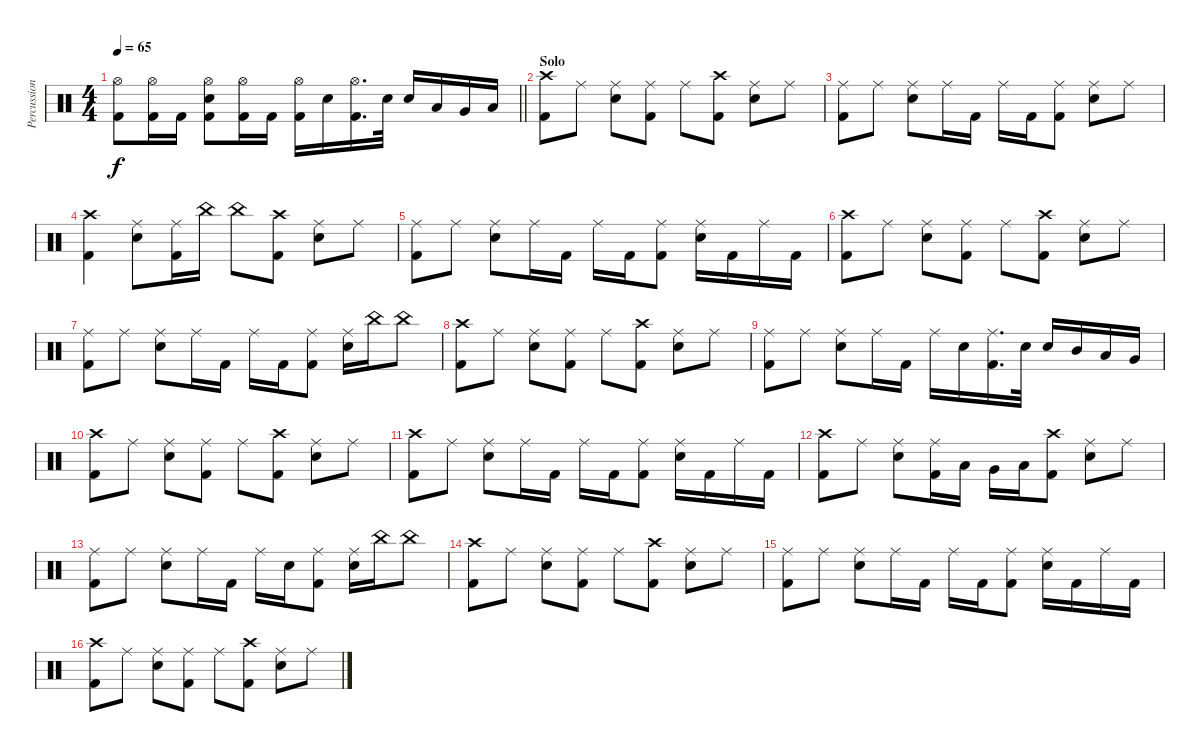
\track ("Percussion" "Percussion") {instrument percussion}
\staff {score}
\articulation defaults
\ts (4 4)
\tempo 65
\clef neutral
\barLineRight lightlight
\ks c
("Hi-Hat (open)" "Kick (hit) 2").8{dy f} ("Hi-Hat (open)" "Kick (hit) 2").16 "Kick (hit) 2".16 ("Hi-Hat (open)" "Snare (hit) 2" "Kick (hit) 2").8 ("Hi-Hat (open)" "Kick (hit) 2").16 "Kick (hit) 2".16 ("Hi-Hat (open)" "Kick (hit) 2").16 "Snare (hit) 2".16 ("Hi-Hat (open)" "Kick (hit) 2").16{d} "Snare (hit) 2".32 "Snare (hit) 2".16 "Low Tom (hit)".16 "Very Low Tom (hit)".16 "Low Floor Tom (hit)".16 |
\section ("" "Solo")
("Crash high (hit)" "Kick (hit) 2").8 "Ride (middle)".8 ("Ride (middle)" "Snare (hit) 2").8 ("Ride (middle)" "Kick (hit) 2").8 "Ride (middle)".8 ("Crash high (hit)" "Kick (hit) 2").8 ("Ride (middle)" "Snare (hit) 2").8 "Ride (middle)".8 |
("Ride (middle)" "Kick (hit) 2").8 "Ride (middle)".8 ("Ride (middle)" "Snare (hit) 2").8 "Ride (middle)".16 "Kick (hit) 2".16 "Ride (middle)".16 "Kick (hit) 2".16 ("Ride (middle)" "Kick (hit) 2").8 ("Ride (middle)" "Snare (hit) 2").8 "Ride (middle)".8 |
("Crash high (hit)" "Kick (hit) 2").4 ("Ride (middle)" "Snare (hit) 2").8 ("Ride (middle)" "Kick (hit) 2").16 "China (hit)".16 "China (hit)".8 ("Crash high (hit)" "Kick (hit) 2").8 ("Ride (middle)" "Snare (hit) 2").8 "Ride (middle)".8 |
("Ride (middle)" "Kick (hit) 2").8 "Ride (middle)".8 ("Ride (middle)" "Snare (hit) 2").8 "Ride (middle)".16 "Kick (hit) 2".16 "Ride (middle)".16 "Kick (hit) 2".16 ("Ride (middle)" "Kick (hit) 2").8 ("Ride (middle)" "Snare (hit) 2").16 "Kick (hit) 2".16 "Ride (middle)".16 "Kick (hit) 2".16 |
("Crash high (hit)" "Kick (hit) 2").8 "Ride (middle)".8 ("Ride (middle)" "Snare (hit) 2").8 ("Ride (middle)" "Kick (hit) 2").8 "Ride (middle)".8 ("Crash high (hit)" "Kick (hit) 2").8 ("Ride (middle)" "Snare (hit) 2").8 "Ride (middle)".8 |
("Ride (middle)" "Kick (hit) 2").8 "Ride (middle)".8 ("Ride (middle)" "Snare (hit) 2").8 "Ride (middle)".16 "Kick (hit) 2".16 "Ride (middle)".16 "Kick (hit) 2".16 ("Ride (middle)" "Kick (hit) 2").8 ("Ride (middle)" "Snare (hit) 2").16 "China (hit)".16 "China (hit)".8 |
("Crash high (hit)" "Kick (hit) 2").8 "Ride (middle)".8 ("Ride (middle)" "Snare (hit) 2").8 ("Ride (middle)" "Kick (hit) 2").8 "Ride (middle)".8 ("Crash high (hit)" "Kick (hit) 2").8 ("Ride (middle)" "Snare (hit) 2").8 "Ride (middle)".8 |
("Ride (middle)" "Kick (hit) 2").8 "Ride (middle)".8 ("Ride (middle)" "Snare (hit) 2").8 "Ride (middle)".16 "Kick (hit) 2".16 "Ride (middle)".16 "Snare (hit) 2".16 ("Ride (middle)" "Kick (hit) 2").16{d} "Snare (hit) 2".32 "Snare (hit) 2".16 "Mid Tom (hit)".16 "Low Tom (hit)".16 "Very Low Tom (hit)".16 |
("Crash high (hit)" "Kick (hit) 2").8 "Ride (middle)".8 ("Ride (middle)" "Snare (hit) 2").8 ("Ride (middle)" "Kick (hit) 2").8 "Ride (middle)".8 ("Crash high (hit)" "Kick (hit) 2").8 ("Ride (middle)" "Snare (hit) 2").8 "Ride (middle)".8 |
("Crash high (hit)" "Kick (hit) 2").8 "Ride (middle)".8 ("Ride (middle)" "Snare (hit) 2").8 "Ride (middle)".16 "Kick (hit) 2".16 "Ride (middle)".16 "Kick (hit) 2".16 ("Ride (middle)" "Kick (hit) 2").8 ("Ride (middle)" "Snare (hit) 2").16 "Kick (hit) 2".16 "Ride (middle)".16 "Kick (hit) 2".16 |
("Crash high (hit)" "Kick (hit) 2").8 "Ride (middle)".8 ("Ride (middle)" "Snare (hit) 2").8 ("Ride (middle)" "Kick (hit) 2").16 "Low Tom (hit)".16 "Very Low Tom (hit)".16 "Low Floor Tom (hit)".16 ("Crash high (hit)" "Kick (hit) 2").8 ("Ride (middle)" "Snare (hit) 2").8 "Ride (middle)".8 |
("Ride (middle)" "Kick (hit) 2").8 "Ride (middle)".8 ("Ride (middle)" "Snare (hit) 2").8 "Ride (middle)".16 "Kick (hit) 2".16 "Ride (middle)".16 "Snare (hit) 2".16 ("Ride (middle)" "Kick (hit) 2").8 ("Ride (middle)" "Snare (hit) 2").16 "China (hit)".16 "China (hit)".8 |
("Crash high (hit)" "Kick (hit) 2").8 "Ride (middle)".8 ("Ride (middle)" "Snare (hit) 2").8 ("Ride (middle)" "Kick (hit) 2").8 "Ride (middle)".8 ("Crash high (hit)" "Kick (hit) 2").8 ("Ride (middle)" "Snare (hit) 2").8 "Ride (middle)".8 |
("Ride (middle)" "Kick (hit) 2").8 "Ride (middle)".8 ("Ride (middle)" "Snare (hit) 2").8 "Ride (middle)".16 "Kick (hit) 2".16 "Ride (middle)".16 "Kick (hit) 2".16 ("Ride (middle)" "Kick (hit) 2").8 ("Ride (middle)" "Snare (hit) 2").16 "Kick (hit) 2".16 "Ride (middle)".16 "Kick (hit) 2".16 |
("Crash high (hit)" "Kick (hit) 2").8 "Ride (middle)".8 ("Ride (middle)" "Snare (hit) 2").8 ("Ride (middle)" "Kick (hit) 2").8 "Ride (middle)".8 ("Crash high (hit)" "Kick (hit) 2").8 ("Ride (middle)" "Snare (hit) 2").8 "Ride (middle)".8
